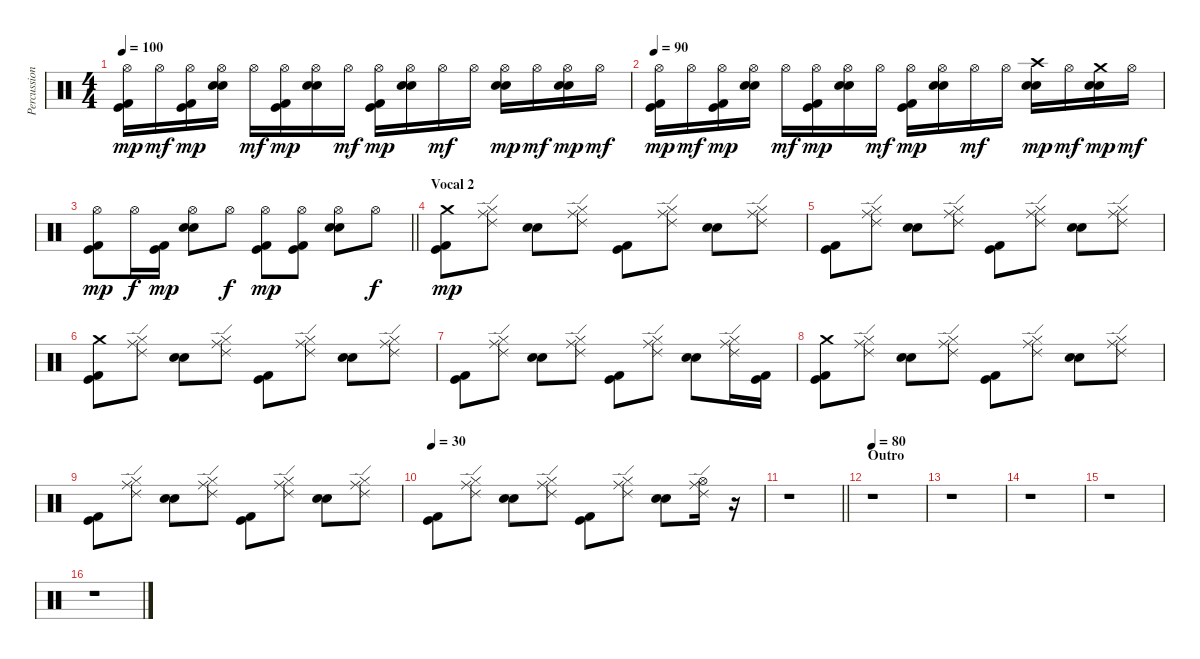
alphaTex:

\track ("Percussion" "Percussion") {instrument percussion}
\staff {score}
\articulation defaults
\ts (4 4)
\tempo 100
\clef neutral
\ks c
("Hi-Hat (open)" "Kick (hit)" "Kick (hit) 2").16{dy mp} "Hi-Hat (open)".16{dy mf} ("Hi-Hat (open)" "Kick (hit)" "Kick (hit) 2").16{dy mp} ("Hi-Hat (open)" "Snare (hit) 2" "Electric Snare (hit)").16 "Hi-Hat (open)".16{dy mf} ("Hi-Hat (open)" "Kick (hit)" "Kick (hit) 2").16{dy mp} ("Hi-Hat (open)" "Snare (hit) 2" "Electric Snare (hit)").16 "Hi-Hat (open)".16{dy mf} ("Hi-Hat (open)" "Kick (hit)" "Kick (hit) 2").16{dy mp} ("Hi-Hat (open)" "Snare (hit) 2" "Electric Snare (hit)").16 "Hi-Hat (open)".16{dy mf} "Hi-Hat (open)".16 ("Hi-Hat (open)" "Snare (hit) 2" "Electric Snare (hit)").16{dy mp} "Hi-Hat (open)".16{dy mf} ("Hi-Hat (open)" "Snare (hit) 2" "Electric Snare (hit)").16{dy mp} "Hi-Hat (open)".16{dy mf} |
\tempo 90
("Hi-Hat (open)" "Kick (hit)" "Kick (hit) 2").16{dy mp} "Hi-Hat (open)".16{dy mf} ("Hi-Hat (open)" "Kick (hit)" "Kick (hit) 2").16{dy mp} ("Hi-Hat (open)" "Snare (hit) 2" "Electric Snare (hit)").16 "Hi-Hat (open)".16{dy mf} ("Hi-Hat (open)" "Kick (hit)" "Kick (hit) 2").16{dy mp} ("Hi-Hat (open)" "Snare (hit) 2" "Electric Snare (hit)").16 "Hi-Hat (open)".16{dy mf} ("Hi-Hat (open)" "Kick (hit)" "Kick (hit) 2").16{dy mp} ("Hi-Hat (open)" "Snare (hit) 2" "Electric Snare (hit)").16 "Hi-Hat (open)".16{dy mf} "Hi-Hat (open)".16 ("Crash high (hit)" "Snare (hit) 2" "Electric Snare (hit)").16{dy mp} "Hi-Hat (open)".16{dy mf} ("Crash medium (hit)" "Snare (hit) 2" "Electric Snare (hit)").16{dy mp} "Hi-Hat (open)".16{dy mf} |
\barLineRight lightlight
("Hi-Hat (open)" "Kick (hit)" "Kick (hit) 2").8{dy mp} "Hi-Hat (open)".16{dy f} ("Kick (hit)" "Kick (hit) 2").16{dy mp} ("Hi-Hat (open)" "Snare (hit) 2" "Electric Snare (hit)").8 "Hi-Hat (open)".8{dy f} ("Hi-Hat (open)" "Kick (hit)" "Kick (hit) 2").8{dy mp} ("Hi-Hat (open)" "Kick (hit)" "Kick (hit) 2").8 ("Hi-Hat (open)" "Snare (hit) 2" "Electric Snare (hit)").8 "Hi-Hat (open)".8{dy f} |
\section ("" "Vocal 2")
("Crash medium (hit)" "Kick (hit)" "Kick (hit) 2").8{dy mp} ("Ride (edge) 2" "Ride (middle)" "Hi-Hat (closed)").8 ("Snare (hit) 2" "Electric Snare (hit)").8 ("Ride (edge) 2" "Ride (middle)" "Hi-Hat (closed)").8 ("Kick (hit)" "Kick (hit) 2").8 ("Ride (edge) 2" "Ride (middle)" "Hi-Hat (closed)").8 ("Snare (hit) 2" "Electric Snare (hit)").8 ("Ride (edge) 2" "Ride (middle)" "Hi-Hat (closed)").8 |
("Kick (hit)" "Kick (hit) 2").8 ("Ride (edge) 2" "Ride (middle)" "Hi-Hat (closed)").8 ("Snare (hit) 2" "Electric Snare (hit)").8 ("Ride (edge) 2" "Ride (middle)" "Hi-Hat (closed)").8 ("Kick (hit)" "Kick (hit) 2").8 ("Ride (edge) 2" "Ride (middle)" "Hi-Hat (closed)").8 ("Snare (hit) 2" "Electric Snare (hit)").8 ("Ride (edge) 2" "Ride (middle)" "Hi-Hat (closed)").8 |
("Crash medium (hit)" "Kick (hit)" "Kick (hit) 2").8 ("Ride (edge) 2" "Ride (middle)" "Hi-Hat (closed)").8 ("Snare (hit) 2" "Electric Snare (hit)").8 ("Ride (edge) 2" "Ride (middle)" "Hi-Hat (closed)").8 ("Kick (hit)" "Kick (hit) 2").8 ("Ride (edge) 2" "Ride (middle)" "Hi-Hat (closed)").8 ("Snare (hit) 2" "Electric Snare (hit)").8 ("Ride (edge) 2" "Ride (middle)" "Hi-Hat (closed)").8 |
("Kick (hit)" "Kick (hit) 2").8 ("Ride (edge) 2" "Ride (middle)" "Hi-Hat (closed)").8 ("Snare (hit) 2" "Electric Snare (hit)").8 ("Ride (edge) 2" "Ride (middle)" "Hi-Hat (closed)").8 ("Kick (hit)" "Kick (hit) 2").8 ("Ride (edge) 2" "Ride (middle)" "Hi-Hat (closed)").8 ("Snare (hit) 2" "Electric Snare (hit)").8 ("Ride (edge) 2" "Ride (middle)" "Hi-Hat (closed)").16 ("Kick (hit)" "Kick (hit) 2").16 |
("Crash medium (hit)" "Kick (hit)" "Kick (hit) 2").8 ("Ride (edge) 2" "Ride (middle)" "Hi-Hat (closed)").8 ("Snare (hit) 2" "Electric Snare (hit)").8 ("Ride (edge) 2" "Ride (middle)" "Hi-Hat (closed)").8 ("Kick (hit)" "Kick (hit) 2").8 ("Ride (edge) 2" "Ride (middle)" "Hi-Hat (closed)").8 ("Snare (hit) 2" "Electric Snare (hit)").8 ("Ride (edge) 2" "Ride (middle)" "Hi-Hat (closed)").8 |
("Kick (hit)" "Kick (hit) 2").8 ("Ride (edge) 2" "Ride (middle)" "Hi-Hat (closed)").8 ("Snare (hit) 2" "Electric Snare (hit)").8 ("Ride (edge) 2" "Ride (middle)" "Hi-Hat (closed)").8 ("Kick (hit)" "Kick (hit) 2").8 ("Ride (edge) 2" "Ride (middle)" "Hi-Hat (closed)").8 ("Snare (hit) 2" "Electric Snare (hit)").8 ("Ride (edge) 2" "Ride (middle)" "Hi-Hat (closed)").8 |
\tempo 30
("Kick (hit)" "Kick (hit) 2").8 ("Ride (edge) 2" "Ride (middle)" "Hi-Hat (closed)").8 ("Snare (hit) 2" "Electric Snare (hit)").8 ("Ride (edge) 2" "Ride (middle)" "Hi-Hat (closed)").8 ("Kick (hit)" "Kick (hit) 2").8 ("Ride (edge) 2" "Ride (middle)" "Hi-Hat (closed)").8 ("Snare (hit) 2" "Electric Snare (hit)").8 ("Ride (edge) 2" "Ride (middle)" "Hi-Hat (open)").16 r.16 |
\barLineRight lightlight
r.1 |
\section ("" "Outro")
\tempo 80
r.1{volume 8} |
r.1 |
r.1 |
r.1 |
r.1
